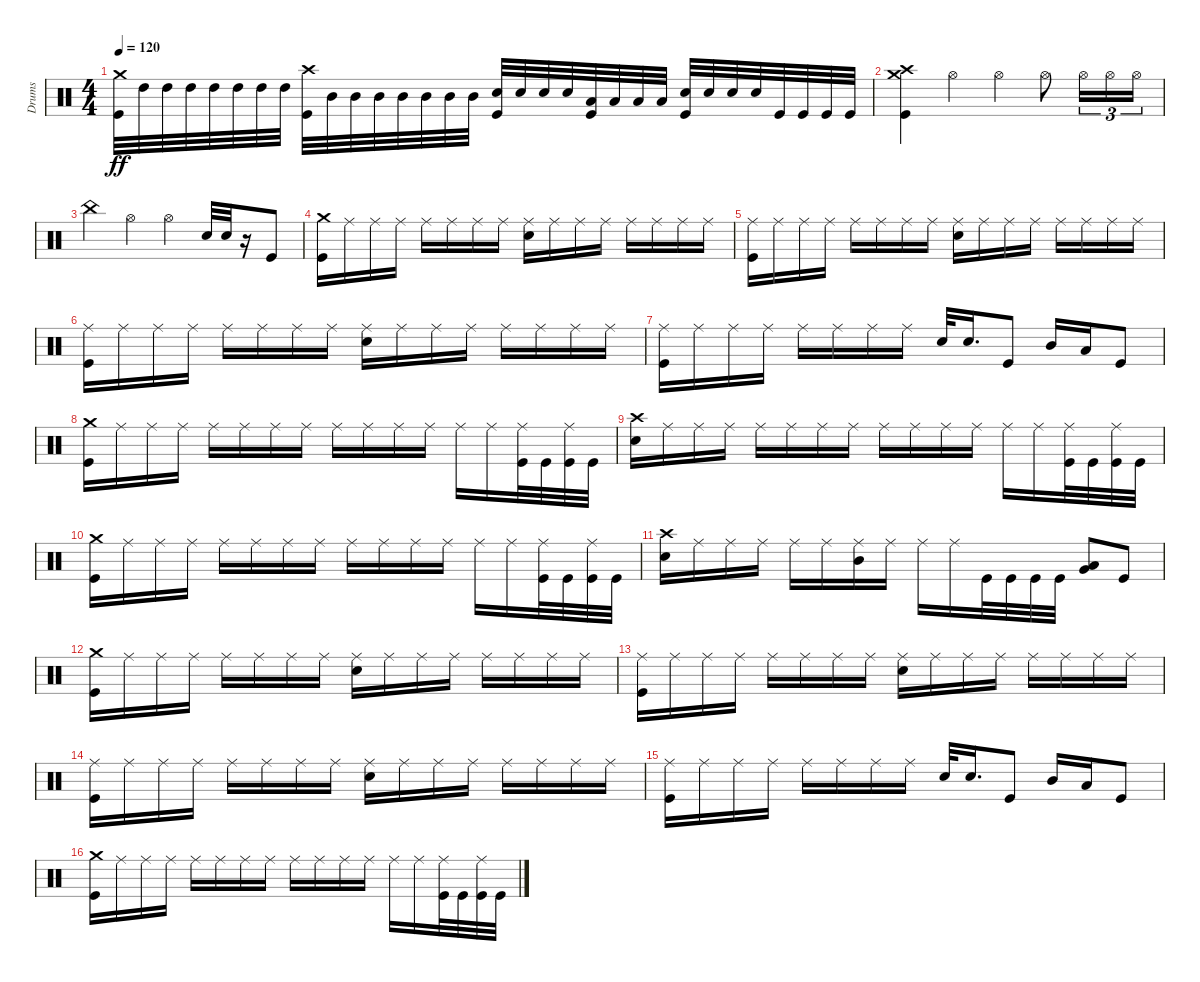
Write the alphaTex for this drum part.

\track ("Drums" "Drums") {instrument percussion}
\staff {score}
\articulation defaults
\ts (4 4)
\tempo 120
\clef neutral
\ks c
("Kick (hit)" "Crash medium (hit)").32{dy ff} "High Tom (hit)".32 "High Tom (hit)".32 "High Tom (hit)".32 "High Tom (hit)".32 "High Tom (hit)".32 "High Tom (hit)".32 "High Tom (hit)".32 ("Kick (hit)" "Crash high (hit)").32 "Mid Tom (hit)".32 "Mid Tom (hit)".32 "Mid Tom (hit)".32 "Mid Tom (hit)".32 "Mid Tom (hit)".32 "Mid Tom (hit)".32 "Mid Tom (hit)".32 ("Snare (hit) 2" "Kick (hit)").32 "Snare (hit) 2".32 "Snare (hit) 2".32 "Snare (hit) 2".32 ("Low Tom (hit)" "Kick (hit)").32 "Low Tom (hit)".32 "Low Tom (hit)".32 "Low Tom (hit)".32 ("Snare (hit) 2" "Kick (hit)").32 "Snare (hit) 2".32 "Snare (hit) 2".32 "Snare (hit) 2".32 "Kick (hit)".32 "Kick (hit)".32 "Kick (hit)".32 "Kick (hit)".32 |
("Crash medium (hit)" "Crash high (hit)" "Kick (hit)").4 "Hi-Hat (open)".4 "Hi-Hat (open)".4 "Hi-Hat (open)".8 "Hi-Hat (open)".16{tu (3 2)} "Hi-Hat (open)".16{tu (3 2)} "Hi-Hat (open)".16{tu (3 2)} |
"China (hit)".4 "Hi-Hat (open)".4 "Hi-Hat (open)".4 "Snare (hit) 2".32 "Snare (hit) 2".32 r.16 "Kick (hit)".8 |
("Kick (hit)" "Crash medium (hit)").16 "Ride (middle)".16 "Ride (middle)".16 "Ride (middle)".16 "Ride (middle)".16 "Ride (middle)".16 "Ride (middle)".16 "Ride (middle)".16 ("Ride (middle)" "Snare (hit) 2").16 "Ride (middle)".16 "Ride (middle)".16 "Ride (middle)".16 "Ride (middle)".16 "Ride (middle)".16 "Ride (middle)".16 "Ride (middle)".16 |
("Kick (hit)" "Ride (middle)").16 "Ride (middle)".16 "Ride (middle)".16 "Ride (middle)".16 "Ride (middle)".16 "Ride (middle)".16 "Ride (middle)".16 "Ride (middle)".16 ("Ride (middle)" "Snare (hit) 2").16 "Ride (middle)".16 "Ride (middle)".16 "Ride (middle)".16 "Ride (middle)".16 "Ride (middle)".16 "Ride (middle)".16 "Ride (middle)".16 |
("Kick (hit)" "Ride (middle)").16 "Ride (middle)".16 "Ride (middle)".16 "Ride (middle)".16 "Ride (middle)".16 "Ride (middle)".16 "Ride (middle)".16 "Ride (middle)".16 ("Ride (middle)" "Snare (hit) 2").16 "Ride (middle)".16 "Ride (middle)".16 "Ride (middle)".16 "Ride (middle)".16 "Ride (middle)".16 "Ride (middle)".16 "Ride (middle)".16 |
("Kick (hit)" "Ride (middle)").16 "Ride (middle)".16 "Ride (middle)".16 "Ride (middle)".16 "Ride (middle)".16 "Ride (middle)".16 "Ride (middle)".16 "Ride (middle)".16 "Snare (hit) 2".32 "Snare (hit) 2".16{d} "Kick (hit)".8 "Mid Tom (hit)".16 "Low Tom (hit)".16 "Kick (hit)".8 |
("Kick (hit)" "Crash medium (hit)").16 "Ride (middle)".16 "Ride (middle)".16 "Ride (middle)".16 "Ride (middle)".16 "Ride (middle)".16 "Ride (middle)".16 "Ride (middle)".16 "Ride (middle)".16 "Ride (middle)".16 "Ride (middle)".16 "Ride (middle)".16 "Ride (middle)".16 "Ride (middle)".16 ("Kick (hit)" "Ride (middle)").32 "Kick (hit)".32 ("Kick (hit)" "Ride (middle)").32 "Kick (hit)".32 |
("Snare (hit) 2" "Crash high (hit)").16 "Ride (middle)".16 "Ride (middle)".16 "Ride (middle)".16 "Ride (middle)".16 "Ride (middle)".16 "Ride (middle)".16 "Ride (middle)".16 "Ride (middle)".16 "Ride (middle)".16 "Ride (middle)".16 "Ride (middle)".16 "Ride (middle)".16 "Ride (middle)".16 ("Kick (hit)" "Ride (middle)").32 "Kick (hit)".32 ("Kick (hit)" "Ride (middle)").32 "Kick (hit)".32 |
("Kick (hit)" "Crash medium (hit)").16 "Ride (middle)".16 "Ride (middle)".16 "Ride (middle)".16 "Ride (middle)".16 "Ride (middle)".16 "Ride (middle)".16 "Ride (middle)".16 "Ride (middle)".16 "Ride (middle)".16 "Ride (middle)".16 "Ride (middle)".16 "Ride (middle)".16 "Ride (middle)".16 ("Kick (hit)" "Ride (middle)").32 "Kick (hit)".32 ("Kick (hit)" "Ride (middle)").32 "Kick (hit)".32 |
("Snare (hit) 2" "Crash high (hit)").16 "Ride (middle)".16 "Ride (middle)".16 "Ride (middle)".16 "Ride (middle)".16 "Ride (middle)".16 ("Ride (middle)" "Mid Tom (hit)").16 "Ride (middle)".16 "Ride (middle)".16 "Ride (middle)".16 "Kick (hit)".32 "Kick (hit)".32 "Kick (hit)".32 "Kick (hit)".32 ("Low Tom (hit)" "Very Low Tom (hit)").8 "Kick (hit)".8 |
("Kick (hit)" "Crash medium (hit)").16 "Ride (middle)".16 "Ride (middle)".16 "Ride (middle)".16 "Ride (middle)".16 "Ride (middle)".16 "Ride (middle)".16 "Ride (middle)".16 ("Ride (middle)" "Snare (hit) 2").16 "Ride (middle)".16 "Ride (middle)".16 "Ride (middle)".16 "Ride (middle)".16 "Ride (middle)".16 "Ride (middle)".16 "Ride (middle)".16 |
("Kick (hit)" "Ride (middle)").16 "Ride (middle)".16 "Ride (middle)".16 "Ride (middle)".16 "Ride (middle)".16 "Ride (middle)".16 "Ride (middle)".16 "Ride (middle)".16 ("Ride (middle)" "Snare (hit) 2").16 "Ride (middle)".16 "Ride (middle)".16 "Ride (middle)".16 "Ride (middle)".16 "Ride (middle)".16 "Ride (middle)".16 "Ride (middle)".16 |
("Kick (hit)" "Ride (middle)").16 "Ride (middle)".16 "Ride (middle)".16 "Ride (middle)".16 "Ride (middle)".16 "Ride (middle)".16 "Ride (middle)".16 "Ride (middle)".16 ("Ride (middle)" "Snare (hit) 2").16 "Ride (middle)".16 "Ride (middle)".16 "Ride (middle)".16 "Ride (middle)".16 "Ride (middle)".16 "Ride (middle)".16 "Ride (middle)".16 |
("Kick (hit)" "Ride (middle)").16 "Ride (middle)".16 "Ride (middle)".16 "Ride (middle)".16 "Ride (middle)".16 "Ride (middle)".16 "Ride (middle)".16 "Ride (middle)".16 "Snare (hit) 2".32 "Snare (hit) 2".16{d} "Kick (hit)".8 "Mid Tom (hit)".16 "Low Tom (hit)".16 "Kick (hit)".8 |
("Kick (hit)" "Crash medium (hit)").16 "Ride (middle)".16 "Ride (middle)".16 "Ride (middle)".16 "Ride (middle)".16 "Ride (middle)".16 "Ride (middle)".16 "Ride (middle)".16 "Ride (middle)".16 "Ride (middle)".16 "Ride (middle)".16 "Ride (middle)".16 "Ride (middle)".16 "Ride (middle)".16 ("Kick (hit)" "Ride (middle)").32 "Kick (hit)".32 ("Kick (hit)" "Ride (middle)").32 "Kick (hit)".32
